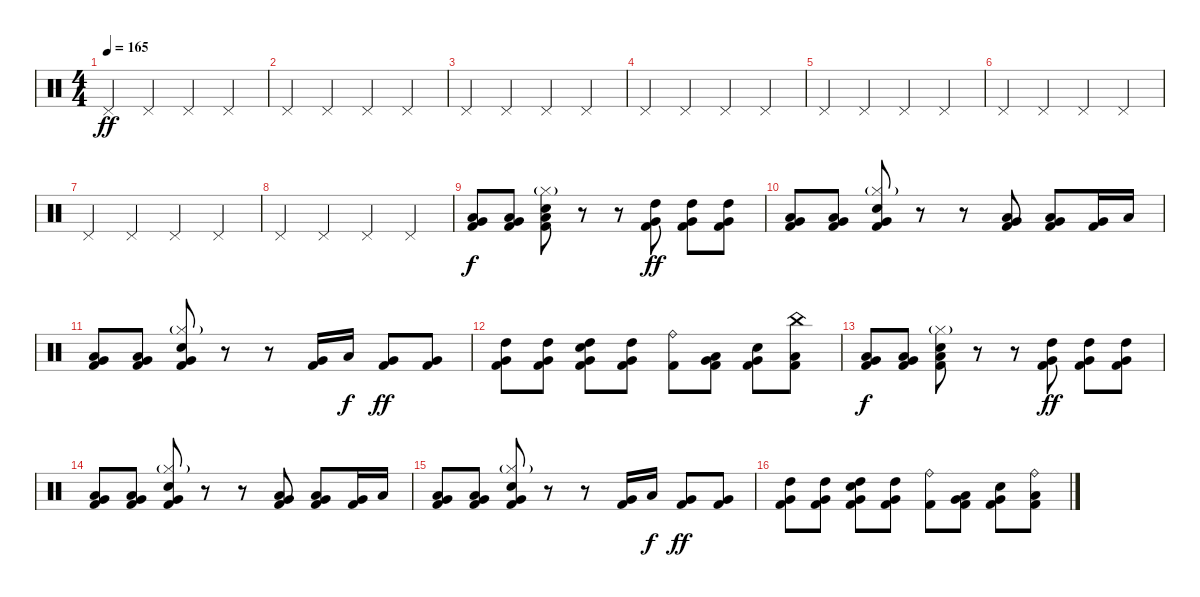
\track "" {instrument percussion}
\staff {score}
\articulation defaults
\ts (4 4)
\tempo 165
\clef neutral
\ks c "Pedal Hi-Hat (hit)".4{dy ff} "Pedal Hi-Hat (hit)".4 "Pedal Hi-Hat (hit)".4 "Pedal Hi-Hat (hit)".4
|
"Pedal Hi-Hat (hit)".4 "Pedal Hi-Hat (hit)".4 "Pedal Hi-Hat (hit)".4 "Pedal Hi-Hat (hit)".4 |
"Pedal Hi-Hat (hit)".4 "Pedal Hi-Hat (hit)".4 "Pedal Hi-Hat (hit)".4 "Pedal Hi-Hat (hit)".4 |
"Pedal Hi-Hat (hit)".4 "Pedal Hi-Hat (hit)".4 "Pedal Hi-Hat (hit)".4 "Pedal Hi-Hat (hit)".4 |
"Pedal Hi-Hat (hit)".4 "Pedal Hi-Hat (hit)".4 "Pedal Hi-Hat (hit)".4 "Pedal Hi-Hat (hit)".4 |
"Pedal Hi-Hat (hit)".4 "Pedal Hi-Hat (hit)".4 "Pedal Hi-Hat (hit)".4 "Pedal Hi-Hat (hit)".4 |
"Pedal Hi-Hat (hit)".4 "Pedal Hi-Hat (hit)".4 "Pedal Hi-Hat (hit)".4 "Pedal Hi-Hat (hit)".4 |
"Pedal Hi-Hat (hit)".4 "Pedal Hi-Hat (hit)".4 "Pedal Hi-Hat (hit)".4 "Pedal Hi-Hat (hit)".4 |
("Low Tom (hit)" "Very Low Tom (hit)" "Kick (hit) 2").8{dy f} ("Low Tom (hit)" "Very Low Tom (hit)" "Kick (hit) 2").8 ("Low Tom (hit)" "Hi-Hat (closed)"{g} "Electric Snare (hit)" "Kick (hit) 2").8 r.8 r.8 ("High Tom (hit)" "Very Low Tom (hit)" "Kick (hit) 2").8{dy ff} ("High Tom (hit)" "Very Low Tom (hit)" "Kick (hit) 2").8 ("High Tom (hit)" "Very Low Tom (hit)" "Kick (hit) 2").8 |
("Low Tom (hit)" "Very Low Tom (hit)" "Kick (hit) 2").8 ("Low Tom (hit)" "Very Low Tom (hit)" "Kick (hit) 2").8 ("Very Low Tom (hit)" "Hi-Hat (closed)"{g} "Electric Snare (hit)" "Kick (hit) 2").8 r.8 r.8 ("Low Tom (hit)" "Very Low Tom (hit)" "Kick (hit) 2").8 ("Low Tom (hit)" "Very Low Tom (hit)" "Kick (hit) 2").8 ("Very Low Tom (hit)" "Kick (hit) 2").16 "Low Tom (hit)".16 |
("Low Tom (hit)" "Very Low Tom (hit)" "Kick (hit) 2").8 ("Low Tom (hit)" "Very Low Tom (hit)" "Kick (hit) 2").8 ("Very Low Tom (hit)" "Hi-Hat (closed)"{g} "Electric Snare (hit)" "Kick (hit) 2").8 r.8 r.8 ("Very Low Tom (hit)" "Kick (hit) 2").16 "Low Tom (hit)".16{dy f} ("Very Low Tom (hit)" "Kick (hit) 2").8{dy ff} ("Very Low Tom (hit)" "Kick (hit) 2").8 |
("High Tom (hit)" "Very Low Tom (hit)" "Kick (hit) 2").8 ("High Tom (hit)" "Very Low Tom (hit)" "Kick (hit) 2").8 ("High Tom (hit)" "Very Low Tom (hit)" "Electric Snare (hit)" "Kick (hit) 2").8 ("High Tom (hit)" "Very Low Tom (hit)" "Kick (hit) 2").8 ("Ride (bell)" "Kick (hit) 2").8 ("Low Tom (hit)" "Very Low Tom (hit)" "Kick (hit) 2").8 ("Very Low Tom (hit)" "Electric Snare (hit)" "Kick (hit) 2").8 ("Low Tom (hit)" "China (hit)" "Kick (hit) 2").8 |
("Low Tom (hit)" "Very Low Tom (hit)" "Kick (hit) 2").8{dy f} ("Low Tom (hit)" "Very Low Tom (hit)" "Kick (hit) 2").8 ("Low Tom (hit)" "Hi-Hat (closed)"{g} "Electric Snare (hit)" "Kick (hit) 2").8 r.8 r.8 ("High Tom (hit)" "Very Low Tom (hit)" "Kick (hit) 2").8{dy ff} ("High Tom (hit)" "Very Low Tom (hit)" "Kick (hit) 2").8 ("High Tom (hit)" "Very Low Tom (hit)" "Kick (hit) 2").8 |
("Low Tom (hit)" "Very Low Tom (hit)" "Kick (hit) 2").8 ("Low Tom (hit)" "Very Low Tom (hit)" "Kick (hit) 2").8 ("Very Low Tom (hit)" "Hi-Hat (closed)"{g} "Electric Snare (hit)" "Kick (hit) 2").8 r.8 r.8 ("Low Tom (hit)" "Very Low Tom (hit)" "Kick (hit) 2").8 ("Low Tom (hit)" "Very Low Tom (hit)" "Kick (hit) 2").8 ("Very Low Tom (hit)" "Kick (hit) 2").16 "Low Tom (hit)".16 |
("Low Tom (hit)" "Very Low Tom (hit)" "Kick (hit) 2").8 ("Low Tom (hit)" "Very Low Tom (hit)" "Kick (hit) 2").8 ("Very Low Tom (hit)" "Hi-Hat (closed)"{g} "Electric Snare (hit)" "Kick (hit) 2").8 r.8 r.8 ("Very Low Tom (hit)" "Kick (hit) 2").16 "Low Tom (hit)".16{dy f} ("Very Low Tom (hit)" "Kick (hit) 2").8{dy ff} ("Very Low Tom (hit)" "Kick (hit) 2").8 |
("High Tom (hit)" "Very Low Tom (hit)" "Kick (hit) 2").8 ("High Tom (hit)" "Very Low Tom (hit)" "Kick (hit) 2").8 ("High Tom (hit)" "Very Low Tom (hit)" "Electric Snare (hit)" "Kick (hit) 2").8 ("High Tom (hit)" "Very Low Tom (hit)" "Kick (hit) 2").8 ("Ride (bell)" "Kick (hit) 2").8 ("Low Tom (hit)" "Very Low Tom (hit)" "Kick (hit) 2").8 ("Very Low Tom (hit)" "Electric Snare (hit)" "Kick (hit) 2").8 ("Low Tom (hit)" "Ride (bell)" "Kick (hit) 2").8
